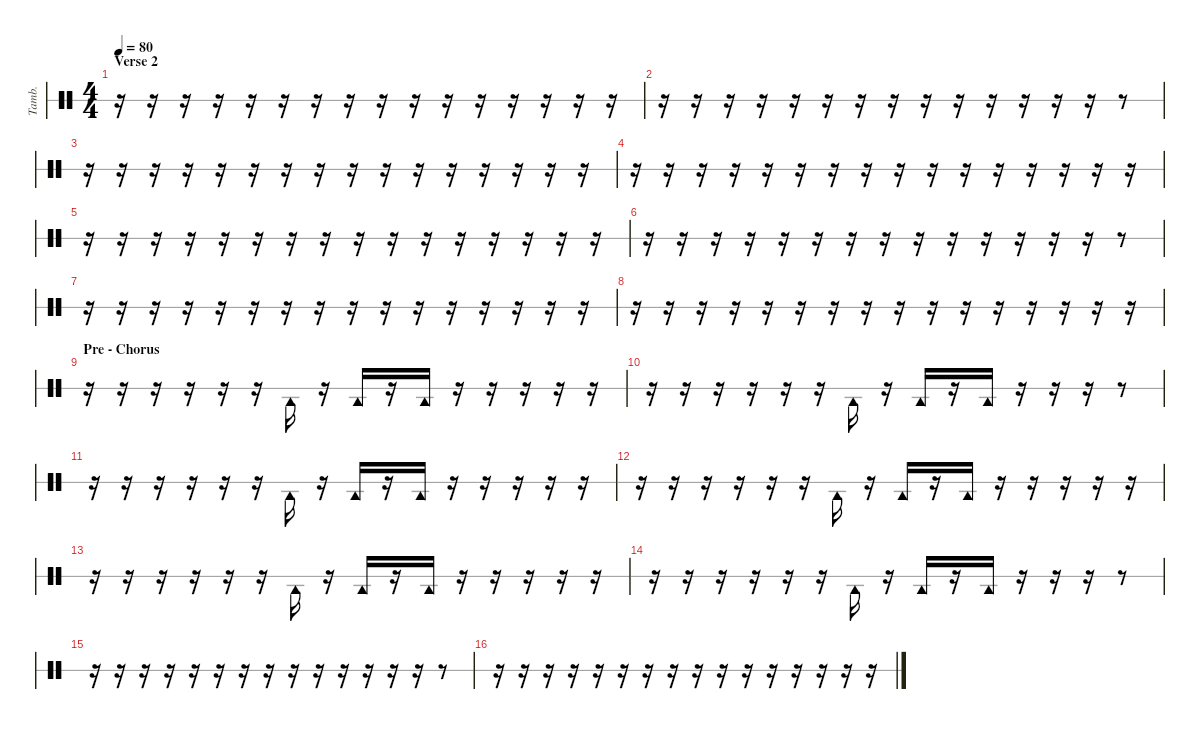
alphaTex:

\hideDynamics
\bracketExtendMode nobrackets
\otherSystemsTrackNameOrientation horizontal
\track ("Tambourine" "Tamb.") {instrument percussion}
\staff {score 1}
\articulation defaults
\ts (4 4)
\section ("" "Verse 2")
\tempo 80
\clef neutral
\ks c
r.16{dy f beam Down} r.16{beam Down} r.16{beam Down} r.16{beam Down} r.16{beam Down} r.16{beam Down} r.16{beam Down} r.16{beam Down} r.16{beam Down} r.16{beam Down} r.16{beam Down} r.16{beam Down} r.16{beam Down} r.16{beam Down} r.16{beam Down} r.16{beam Down} |
r.16{beam Down} r.16{beam Down} r.16{beam Down} r.16{beam Down} r.16{beam Down} r.16{beam Down} r.16{beam Down} r.16{beam Down} r.16{beam Down} r.16{beam Down} r.16{beam Down} r.16{beam Down} r.16{beam Down} r.16{beam Down} r.8{beam Down} |
r.16{beam Down} r.16{beam Down} r.16{beam Down} r.16{beam Down} r.16{beam Down} r.16{beam Down} r.16{beam Down} r.16{beam Down} r.16{beam Down} r.16{beam Down} r.16{beam Down} r.16{beam Down} r.16{beam Down} r.16{beam Down} r.16{beam Down} r.16{beam Down} |
r.16{beam Down} r.16{beam Down} r.16{beam Down} r.16{beam Down} r.16{beam Down} r.16{beam Down} r.16{beam Down} r.16{beam Down} r.16{beam Down} r.16{beam Down} r.16{beam Down} r.16{beam Down} r.16{beam Down} r.16{beam Down} r.16{beam Down} r.16{beam Down} |
r.16{beam Down} r.16{beam Down} r.16{beam Down} r.16{beam Down} r.16{beam Down} r.16{beam Down} r.16{beam Down} r.16{beam Down} r.16{beam Down} r.16{beam Down} r.16{beam Down} r.16{beam Down} r.16{beam Down} r.16{beam Down} r.16{beam Down} r.16{beam Down} |
r.16{beam Down} r.16{beam Down} r.16{beam Down} r.16{beam Down} r.16{beam Down} r.16{beam Down} r.16{beam Down} r.16{beam Down} r.16{beam Down} r.16{beam Down} r.16{beam Down} r.16{beam Down} r.16{beam Down} r.16{beam Down} r.8{beam Down} |
r.16{beam Down} r.16{beam Down} r.16{beam Down} r.16{beam Down} r.16{beam Down} r.16{beam Down} r.16{beam Down} r.16{beam Down} r.16{beam Down} r.16{beam Down} r.16{beam Down} r.16{beam Down} r.16{beam Down} r.16{beam Down} r.16{beam Down} r.16{beam Down} |
r.16{beam Down} r.16{beam Down} r.16{beam Down} r.16{beam Down} r.16{beam Down} r.16{beam Down} r.16{beam Down} r.16{beam Down} r.16{beam Down} r.16{beam Down} r.16{beam Down} r.16{beam Down} r.16{beam Down} r.16{beam Down} r.16{beam Down} r.16{beam Down} |
\section ("" "Pre - Chorus")
r.16{beam Down} r.16{beam Down} r.16{beam Down} r.16{beam Down} r.16{beam Down} r.16{beam Down} "Tambourine (hit)".16{beam Down} r.16{beam Down} "Tambourine (hit)".16{beam Up} r.16{beam Up} "Tambourine (hit)".16{beam Up} r.16{beam Up} r.16{beam Up} r.16{beam Up} r.16{beam Up} r.16{beam Up} |
r.16{beam Down} r.16{beam Down} r.16{beam Down} r.16{beam Down} r.16{beam Down} r.16{beam Down} "Tambourine (hit)".16{beam Down} r.16{beam Down} "Tambourine (hit)".16{beam Up} r.16{beam Up} "Tambourine (hit)".16{beam Up} r.16{beam Up} r.16{beam Up} r.16{beam Up} r.8{beam Up} |
r.16{beam Down} r.16{beam Down} r.16{beam Down} r.16{beam Down} r.16{beam Down} r.16{beam Down} "Tambourine (hit)".16{beam Down} r.16{beam Down} "Tambourine (hit)".16{beam Up} r.16{beam Up} "Tambourine (hit)".16{beam Up} r.16{beam Up} r.16{beam Up} r.16{beam Up} r.16{beam Up} r.16{beam Up} |
r.16{beam Down} r.16{beam Down} r.16{beam Down} r.16{beam Down} r.16{beam Down} r.16{beam Down} "Tambourine (hit)".16{beam Down} r.16{beam Down} "Tambourine (hit)".16{beam Up} r.16{beam Up} "Tambourine (hit)".16{beam Up} r.16{beam Up} r.16{beam Up} r.16{beam Up} r.16{beam Up} r.16{beam Up} |
r.16{beam Down} r.16{beam Down} r.16{beam Down} r.16{beam Down} r.16{beam Down} r.16{beam Down} "Tambourine (hit)".16{beam Down} r.16{beam Down} "Tambourine (hit)".16{beam Up} r.16{beam Up} "Tambourine (hit)".16{beam Up} r.16{beam Up} r.16{beam Up} r.16{beam Up} r.16{beam Up} r.16{beam Up} |
r.16{beam Down} r.16{beam Down} r.16{beam Down} r.16{beam Down} r.16{beam Down} r.16{beam Down} "Tambourine (hit)".16{beam Down} r.16{beam Down} "Tambourine (hit)".16{beam Up} r.16{beam Up} "Tambourine (hit)".16{beam Up} r.16{beam Up} r.16{beam Up} r.16{beam Up} r.8{beam Up} |
r.16{beam Down} r.16{beam Down} r.16{beam Down} r.16{beam Down} r.16{beam Down} r.16{beam Down} r.16{beam Down} r.16{beam Down} r.16{beam Down} r.16{beam Down} r.16{beam Down} r.16{beam Down} r.16{beam Down} r.16{beam Down} r.8{beam Down} |
r.16{beam Down} r.16{beam Down} r.16{beam Down} r.16{beam Down} r.16{beam Down} r.16{beam Down} r.16{beam Down} r.16{beam Down} r.16{beam Down} r.16{beam Down} r.16{beam Down} r.16{beam Down} r.16{beam Down} r.16{beam Down} r.16{beam Down} r.16{beam Down}
